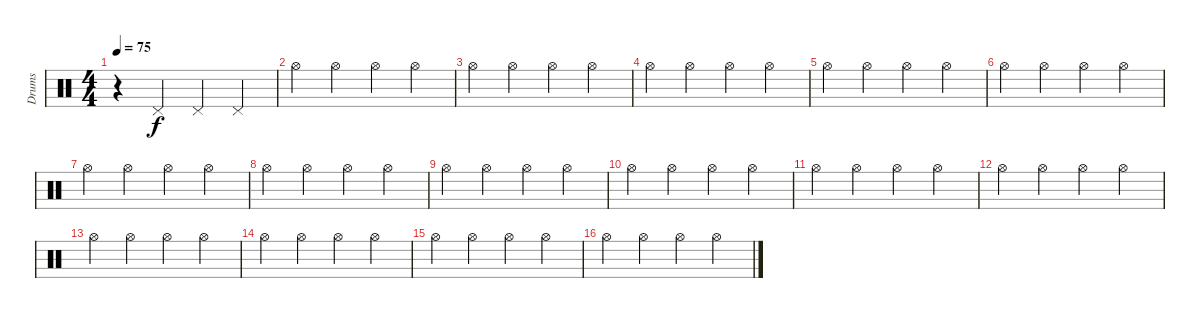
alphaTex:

\track ("Drums" "Drums") {instrument percussion}
\staff {score}
\articulation defaults
\ts (4 4)
\tempo 75
\clef neutral
\ks c
r.4{dy f} "Pedal Hi-Hat (hit)".4 "Pedal Hi-Hat (hit)".4 "Pedal Hi-Hat (hit)".4 |
"Hi-Hat (open)".4 "Hi-Hat (open)".4 "Hi-Hat (open)".4 "Hi-Hat (open)".4 |
"Hi-Hat (open)".4 "Hi-Hat (open)".4 "Hi-Hat (open)".4 "Hi-Hat (open)".4 |
"Hi-Hat (open)".4 "Hi-Hat (open)".4 "Hi-Hat (open)".4 "Hi-Hat (open)".4 |
"Hi-Hat (open)".4 "Hi-Hat (open)".4 "Hi-Hat (open)".4 "Hi-Hat (open)".4 |
"Hi-Hat (open)".4 "Hi-Hat (open)".4 "Hi-Hat (open)".4 "Hi-Hat (open)".4 |
"Hi-Hat (open)".4 "Hi-Hat (open)".4 "Hi-Hat (open)".4 "Hi-Hat (open)".4 |
"Hi-Hat (open)".4 "Hi-Hat (open)".4 "Hi-Hat (open)".4 "Hi-Hat (open)".4 |
"Hi-Hat (open)".4 "Hi-Hat (open)".4 "Hi-Hat (open)".4 "Hi-Hat (open)".4 |
"Hi-Hat (open)".4 "Hi-Hat (open)".4 "Hi-Hat (open)".4 "Hi-Hat (open)".4 |
"Hi-Hat (open)".4 "Hi-Hat (open)".4 "Hi-Hat (open)".4 "Hi-Hat (open)".4 |
"Hi-Hat (open)".4 "Hi-Hat (open)".4 "Hi-Hat (open)".4 "Hi-Hat (open)".4 |
"Hi-Hat (open)".4 "Hi-Hat (open)".4 "Hi-Hat (open)".4 "Hi-Hat (open)".4 |
"Hi-Hat (open)".4 "Hi-Hat (open)".4 "Hi-Hat (open)".4 "Hi-Hat (open)".4 |
"Hi-Hat (open)".4 "Hi-Hat (open)".4 "Hi-Hat (open)".4 "Hi-Hat (open)".4 |
"Hi-Hat (open)".4 "Hi-Hat (open)".4 "Hi-Hat (open)".4 "Hi-Hat (open)".4
